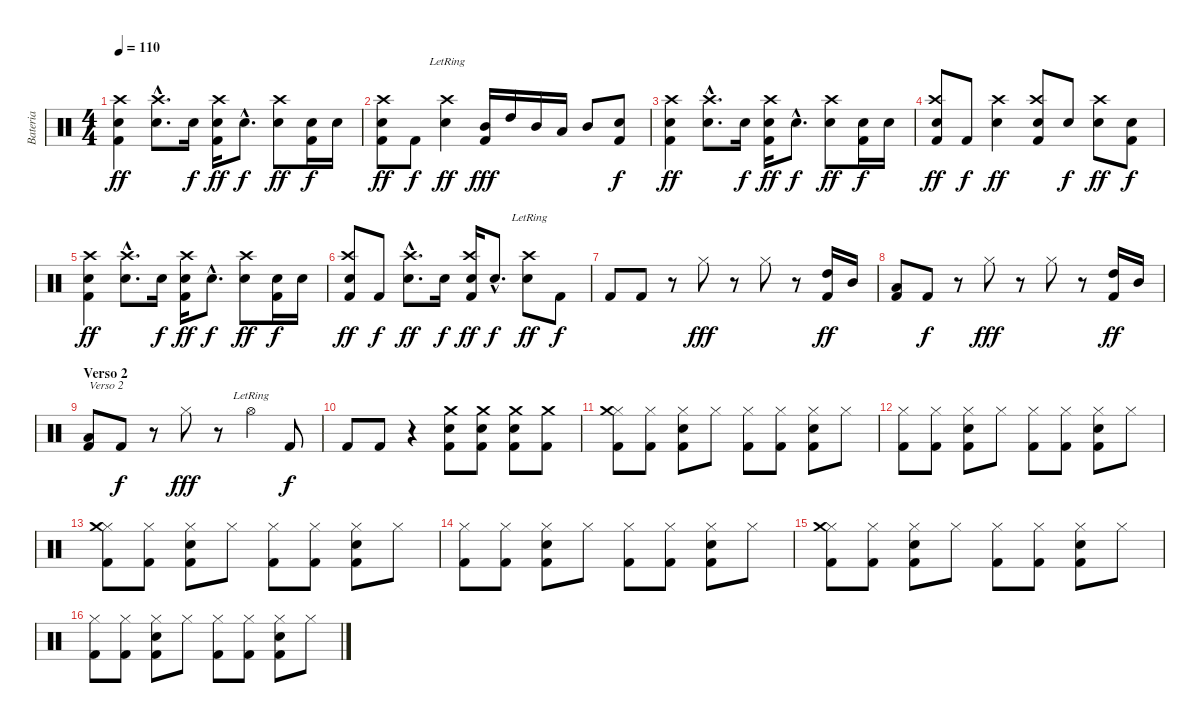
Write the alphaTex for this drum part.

\track ("Bateria" "Bateria") {instrument percussion}
\staff {score}
\articulation defaults
\ts (4 4)
\tempo 110
\clef neutral
\ks c
("Kick (hit) 2" "Electric Snare (hit)" "Crash high (hit)").4{dy ff} ("Electric Snare (hit)"{hac} "Crash high (hit)"{hac}).8{d} "Metronome (bell)".16{dy f} ("Kick (hit) 2" "Electric Snare (hit)" "Crash high (hit)").16{dy ff} "Metronome (bell)"{hac}.8{d dy f} ("Metronome (bell)" "Crash high (hit)").8{dy ff} ("Kick (hit) 2" "Metronome (bell)").16{dy f} "Electric Snare (hit)".16 |
("Kick (hit) 2" "Electric Snare (hit)" "Crash high (hit)").8{dy ff} "Kick (hit) 2".8{dy f} ("Electric Snare (hit)" "Crash high (hit)"{lr}).4{dy ff} ("Kick (hit) 2" "Mid Tom (hit)").16{dy fff} "High Tom (hit)".16 "Mid Tom (hit)".16 "Low Tom (hit)".16 "Mid Tom (hit)".8 ("Kick (hit) 2" "Electric Snare (hit)").8{dy f} |
("Kick (hit) 2" "Electric Snare (hit)" "Crash high (hit)").4{dy ff} ("Electric Snare (hit)"{hac} "Crash high (hit)"{hac}).8{d} "Metronome (bell)".16{dy f} ("Kick (hit) 2" "Electric Snare (hit)" "Crash high (hit)").16{dy ff} "Metronome (bell)"{hac}.8{d dy f} ("Metronome (bell)" "Crash high (hit)").8{dy ff} ("Kick (hit) 2" "Metronome (bell)").16{dy f} "Electric Snare (hit)".16 |
("Kick (hit) 2" "Metronome (bell)" "Crash high (hit)").8{dy ff} "Kick (hit) 2".8{dy f} ("Electric Snare (hit)" "Crash high (hit)").4{dy ff} ("Kick (hit) 2" "Metronome (bell)" "Crash high (hit)").8 "Metronome (bell)".8{dy f} ("Metronome (bell)" "Crash high (hit)").8{dy ff} ("Kick (hit) 2" "Metronome (bell)").8{dy f} |
("Kick (hit) 2" "Electric Snare (hit)" "Crash high (hit)").4{dy ff} ("Electric Snare (hit)"{hac} "Crash high (hit)"{hac}).8{d} "Metronome (bell)".16{dy f} ("Kick (hit) 2" "Electric Snare (hit)" "Crash high (hit)").16{dy ff} "Metronome (bell)"{hac}.8{d dy f} ("Metronome (bell)" "Crash high (hit)").8{dy ff} ("Kick (hit) 2" "Metronome (bell)").16{dy f} "Electric Snare (hit)".16 |
("Kick (hit) 2" "Metronome (bell)" "Crash high (hit)").8{dy ff} "Kick (hit) 2".8{dy f} ("Electric Snare (hit)"{hac} "Crash high (hit)"{hac}).8{d dy ff} "Electric Snare (hit)".16{dy f} ("Kick (hit) 2" "Metronome (bell)" "Crash high (hit)").16{dy ff} "Electric Snare (hit)"{hac}.8{d dy f} ("Metronome (bell)" "Crash high (hit)"{lr}).8{dy ff} "Kick (hit) 2".8{dy f} |
"Kick (hit) 2".8 "Kick (hit) 2".8 r.8 "Hi-Hat (closed)".8{dy fff} r.8 "Hi-Hat (closed)".8 r.8 ("Kick (hit) 2" "High Tom (hit)").16{dy ff} "Mid Tom (hit)".16 |
("Kick (hit) 2" "Low Tom (hit)").8 "Kick (hit) 2".8{dy f} r.8 "Hi-Hat (closed)".8{dy fff} r.8 "Hi-Hat (closed)".8 r.8 ("Kick (hit) 2" "High Tom (hit)").16{dy ff} "Mid Tom (hit)".16 |
\section ("" "Verso 2")
("Kick (hit) 2" "Low Tom (hit)").8{txt "Verso 2"} "Kick (hit) 2".8{dy f} r.8 "Hi-Hat (closed)".8{dy fff} r.8 "Hi-Hat (open)"{lr}.4 "Kick (hit) 2".8{dy f} |
"Kick (hit) 2".8 "Kick (hit) 2".8 r.4 ("Kick (hit) 2" "Metronome (bell)" "Crash medium (hit)").8 ("Kick (hit) 2" "Metronome (bell)" "Crash medium (hit)").8 ("Kick (hit) 2" "Metronome (bell)" "Crash medium (hit)").8 ("Kick (hit) 2" "Crash medium (hit)").8 |
("Hi-Hat (closed)" "Kick (hit) 2" "Crash medium (hit)").8 ("Hi-Hat (closed)" "Kick (hit) 2").8 ("Hi-Hat (closed)" "Kick (hit) 2" "Metronome (bell)").8 "Hi-Hat (closed)".8 ("Hi-Hat (closed)" "Kick (hit) 2").8 ("Hi-Hat (closed)" "Kick (hit) 2").8 ("Hi-Hat (closed)" "Kick (hit) 2" "Metronome (bell)").8 "Hi-Hat (closed)".8 |
("Hi-Hat (closed)" "Kick (hit) 2").8 ("Hi-Hat (closed)" "Kick (hit) 2").8 ("Hi-Hat (closed)" "Kick (hit) 2" "Metronome (bell)").8 "Hi-Hat (closed)".8 ("Hi-Hat (closed)" "Kick (hit) 2").8 ("Hi-Hat (closed)" "Kick (hit) 2").8 ("Hi-Hat (closed)" "Kick (hit) 2" "Metronome (bell)").8 "Hi-Hat (closed)".8 |
("Hi-Hat (closed)" "Kick (hit) 2" "Crash medium (hit)").8 ("Hi-Hat (closed)" "Kick (hit) 2").8 ("Hi-Hat (closed)" "Kick (hit) 2" "Metronome (bell)").8 "Hi-Hat (closed)".8 ("Hi-Hat (closed)" "Kick (hit) 2").8 ("Hi-Hat (closed)" "Kick (hit) 2").8 ("Hi-Hat (closed)" "Kick (hit) 2" "Metronome (bell)").8 "Hi-Hat (closed)".8 |
("Hi-Hat (closed)" "Kick (hit) 2").8 ("Hi-Hat (closed)" "Kick (hit) 2").8 ("Hi-Hat (closed)" "Kick (hit) 2" "Metronome (bell)").8 "Hi-Hat (closed)".8 ("Hi-Hat (closed)" "Kick (hit) 2").8 ("Hi-Hat (closed)" "Kick (hit) 2").8 ("Hi-Hat (closed)" "Kick (hit) 2" "Metronome (bell)").8 "Hi-Hat (closed)".8 |
("Hi-Hat (closed)" "Kick (hit) 2" "Crash medium (hit)").8 ("Hi-Hat (closed)" "Kick (hit) 2").8 ("Hi-Hat (closed)" "Kick (hit) 2" "Metronome (bell)").8 "Hi-Hat (closed)".8 ("Hi-Hat (closed)" "Kick (hit) 2").8 ("Hi-Hat (closed)" "Kick (hit) 2").8 ("Hi-Hat (closed)" "Kick (hit) 2" "Metronome (bell)").8 "Hi-Hat (closed)".8 |
("Hi-Hat (closed)" "Kick (hit) 2").8 ("Hi-Hat (closed)" "Kick (hit) 2").8 ("Hi-Hat (closed)" "Kick (hit) 2" "Metronome (bell)").8 "Hi-Hat (closed)".8 ("Hi-Hat (closed)" "Kick (hit) 2").8 ("Hi-Hat (closed)" "Kick (hit) 2").8 ("Hi-Hat (closed)" "Kick (hit) 2" "Metronome (bell)").8 "Hi-Hat (closed)".8
